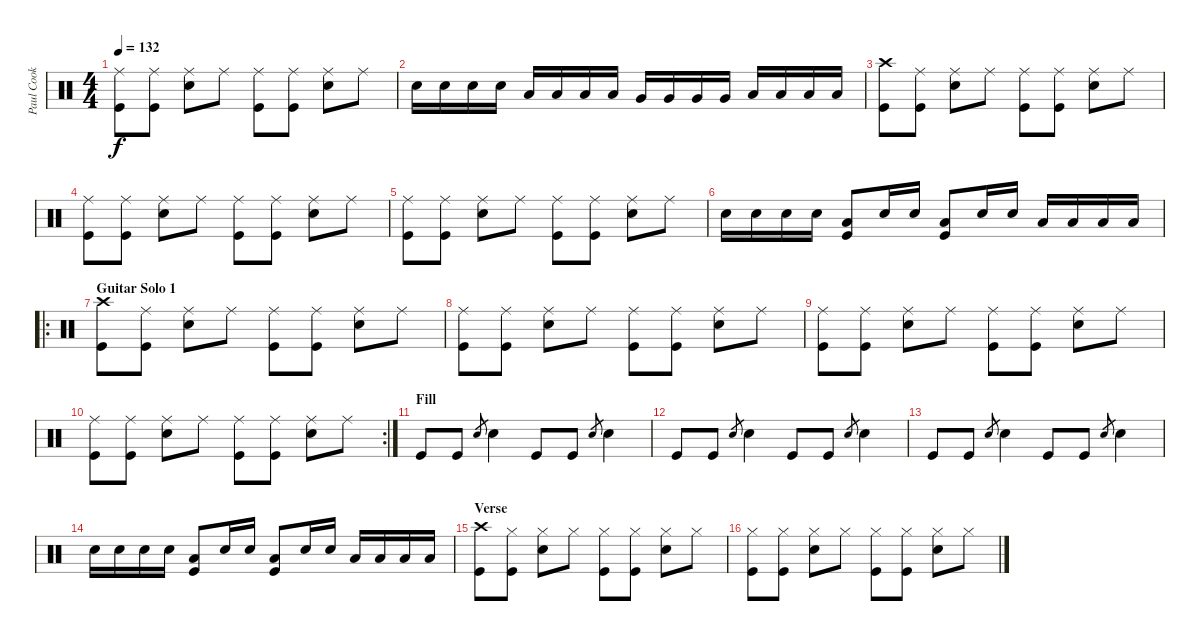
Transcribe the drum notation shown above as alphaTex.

\track ("Paul Cook" "Paul Cook") {instrument percussion}
\staff {score}
\articulation defaults
\ts (4 4)
\tempo 132
\clef neutral
\ks c
("Ride (middle)" "Kick (hit)").8{dy f} ("Ride (middle)" "Kick (hit)").8 ("Ride (middle)" "Snare (hit) 2").8 "Ride (middle)".8 ("Ride (middle)" "Kick (hit)").8 ("Ride (middle)" "Kick (hit)").8 ("Ride (middle)" "Snare (hit) 2").8 "Ride (middle)".8 |
"Snare (hit) 2".16 "Snare (hit) 2".16 "Snare (hit) 2".16 "Snare (hit) 2".16 "Low Tom (hit)".16 "Low Tom (hit)".16 "Low Tom (hit)".16 "Low Tom (hit)".16 "Very Low Tom (hit)".16 "Very Low Tom (hit)".16 "Very Low Tom (hit)".16 "Very Low Tom (hit)".16 "Low Floor Tom (hit)".16 "Low Floor Tom (hit)".16 "Low Floor Tom (hit)".16 "Low Floor Tom (hit)".16 |
("Crash high (hit)" "Kick (hit)").8 ("Ride (middle)" "Kick (hit)").8 ("Ride (middle)" "Snare (hit) 2").8 "Ride (middle)".8 ("Ride (middle)" "Kick (hit)").8 ("Ride (middle)" "Kick (hit)").8 ("Ride (middle)" "Snare (hit) 2").8 "Ride (middle)".8 |
("Ride (middle)" "Kick (hit)").8 ("Ride (middle)" "Kick (hit)").8 ("Ride (middle)" "Snare (hit) 2").8 "Ride (middle)".8 ("Ride (middle)" "Kick (hit)").8 ("Ride (middle)" "Kick (hit)").8 ("Ride (middle)" "Snare (hit) 2").8 "Ride (middle)".8 |
("Ride (middle)" "Kick (hit)").8 ("Ride (middle)" "Kick (hit)").8 ("Ride (middle)" "Snare (hit) 2").8 "Ride (middle)".8 ("Ride (middle)" "Kick (hit)").8 ("Ride (middle)" "Kick (hit)").8 ("Ride (middle)" "Snare (hit) 2").8 "Ride (middle)".8 |
"Snare (hit) 2".16 "Snare (hit) 2".16 "Snare (hit) 2".16 "Snare (hit) 2".16 ("Low Tom (hit)" "Kick (hit)").8 "Snare (hit) 2".16 "Snare (hit) 2".16 ("Low Tom (hit)" "Kick (hit)").8 "Snare (hit) 2".16 "Snare (hit) 2".16 "Low Tom (hit)".16 "Low Tom (hit)".16 "Low Tom (hit)".16 "Low Tom (hit)".16 |
\ro
\section ("" "Guitar Solo 1")
("Crash high (hit)" "Kick (hit)").8 ("Ride (middle)" "Kick (hit)").8 ("Ride (middle)" "Snare (hit) 2").8 "Ride (middle)".8 ("Ride (middle)" "Kick (hit)").8 ("Ride (middle)" "Kick (hit)").8 ("Ride (middle)" "Snare (hit) 2").8 "Ride (middle)".8 |
("Ride (middle)" "Kick (hit)").8 ("Ride (middle)" "Kick (hit)").8 ("Ride (middle)" "Snare (hit) 2").8 "Ride (middle)".8 ("Ride (middle)" "Kick (hit)").8 ("Ride (middle)" "Kick (hit)").8 ("Ride (middle)" "Snare (hit) 2").8 "Ride (middle)".8 |
("Ride (middle)" "Kick (hit)").8 ("Ride (middle)" "Kick (hit)").8 ("Ride (middle)" "Snare (hit) 2").8 "Ride (middle)".8 ("Ride (middle)" "Kick (hit)").8 ("Ride (middle)" "Kick (hit)").8 ("Ride (middle)" "Snare (hit) 2").8 "Ride (middle)".8 |
\rc 2
("Ride (middle)" "Kick (hit)").8 ("Ride (middle)" "Kick (hit)").8 ("Ride (middle)" "Snare (hit) 2").8 "Ride (middle)".8 ("Ride (middle)" "Kick (hit)").8 ("Ride (middle)" "Kick (hit)").8 ("Ride (middle)" "Snare (hit) 2").8 "Ride (middle)".8 |
\section ("" "Fill")
"Kick (hit)".8 "Kick (hit)".8 "Snare (hit) 2".8{gr} "Snare (hit) 2".4 "Kick (hit)".8 "Kick (hit)".8 "Snare (hit) 2".8{gr} "Snare (hit) 2".4 |
"Kick (hit)".8 "Kick (hit)".8 "Snare (hit) 2".8{gr} "Snare (hit) 2".4 "Kick (hit)".8 "Kick (hit)".8 "Snare (hit) 2".8{gr} "Snare (hit) 2".4 |
"Kick (hit)".8 "Kick (hit)".8 "Snare (hit) 2".8{gr} "Snare (hit) 2".4 "Kick (hit)".8 "Kick (hit)".8 "Snare (hit) 2".8{gr} "Snare (hit) 2".4 |
"Snare (hit) 2".16 "Snare (hit) 2".16 "Snare (hit) 2".16 "Snare (hit) 2".16 ("Low Tom (hit)" "Kick (hit)").8 "Snare (hit) 2".16 "Snare (hit) 2".16 ("Low Tom (hit)" "Kick (hit)").8 "Snare (hit) 2".16 "Snare (hit) 2".16 "Low Tom (hit)".16 "Low Tom (hit)".16 "Low Tom (hit)".16 "Low Tom (hit)".16 |
\section ("" "Verse")
("Crash high (hit)" "Kick (hit)").8 ("Hi-Hat (closed)" "Kick (hit)").8 ("Hi-Hat (closed)" "Snare (hit) 2").8 "Hi-Hat (closed)".8 ("Hi-Hat (closed)" "Kick (hit)").8 ("Hi-Hat (closed)" "Kick (hit)").8 ("Hi-Hat (closed)" "Snare (hit) 2").8 "Hi-Hat (closed)".8 |
("Hi-Hat (closed)" "Kick (hit)").8 ("Hi-Hat (closed)" "Kick (hit)").8 ("Hi-Hat (closed)" "Snare (hit) 2").8 "Hi-Hat (closed)".8 ("Hi-Hat (closed)" "Kick (hit)").8 ("Hi-Hat (closed)" "Kick (hit)").8 ("Hi-Hat (closed)" "Snare (hit) 2").8 "Hi-Hat (closed)".8
